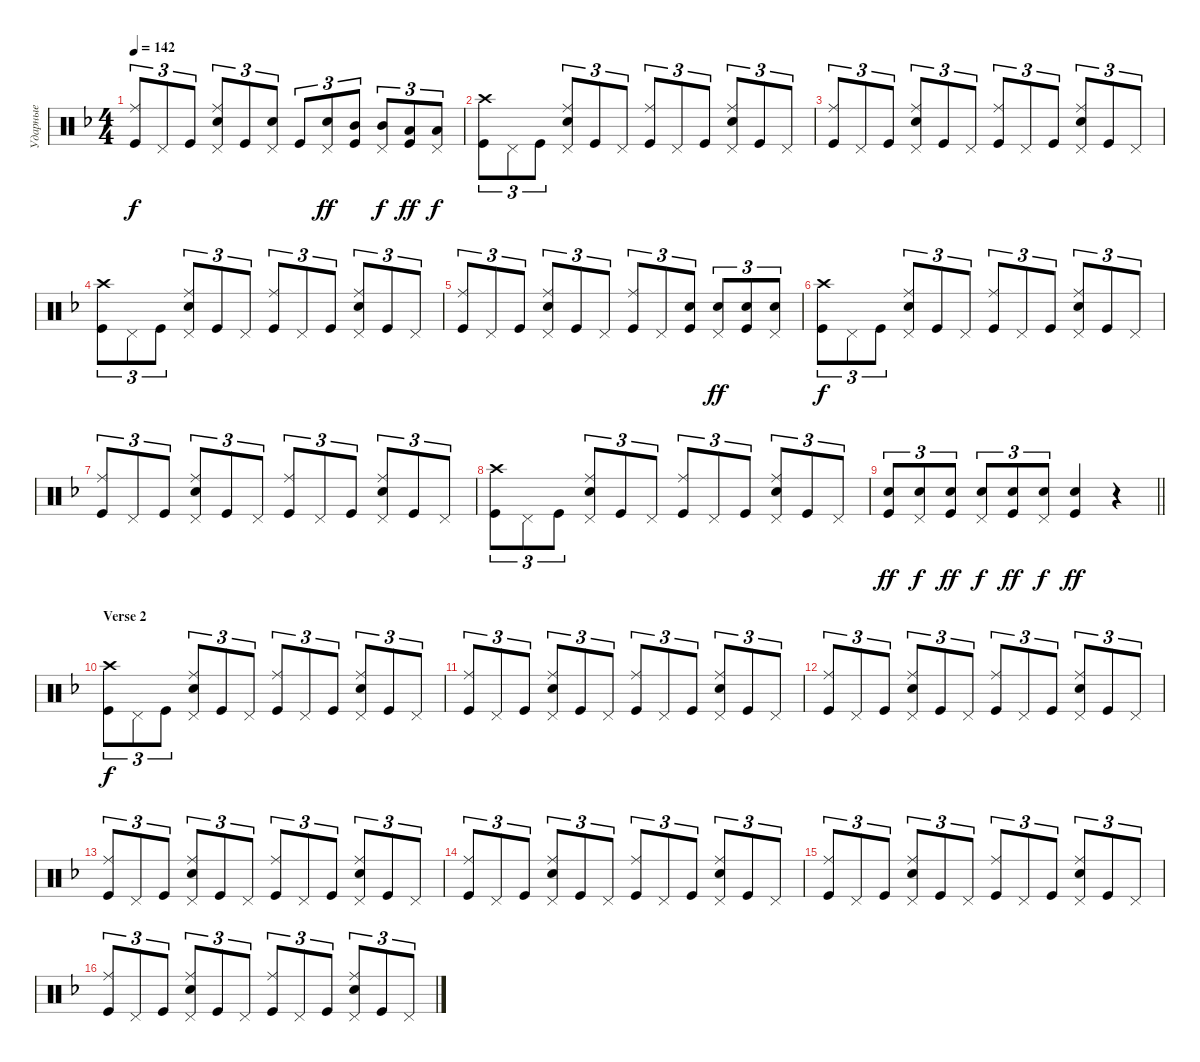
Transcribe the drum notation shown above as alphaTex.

\track ("Ударные" "Ударные") {instrument percussion}
\staff {score}
\articulation defaults
\ts (4 4)
\tempo 142
\clef neutral
\ks dminor
("Kick (hit)" "Ride (middle)").8{tu (3 2) dy f} "Pedal Hi-Hat (hit)".8{tu (3 2)} "Kick (hit)".8{tu (3 2)} ("Snare (hit) 2" "Ride (middle)" "Pedal Hi-Hat (hit)").8{tu (3 2)} "Kick (hit)".8{tu (3 2)} ("Pedal Hi-Hat (hit)" "Snare (hit) 2").8{tu (3 2)} "Kick (hit)".8{tu (3 2)} ("Snare (hit) 2" "Pedal Hi-Hat (hit)").8{tu (3 2) dy ff} ("Mid Tom (hit)" "Kick (hit)").8{tu (3 2)} ("Mid Tom (hit)" "Pedal Hi-Hat (hit)").8{tu (3 2) dy f} ("Low Tom (hit)" "Kick (hit)").8{tu (3 2) dy ff} ("Pedal Hi-Hat (hit)" "Low Tom (hit)").8{tu (3 2) dy f} |
("Kick (hit)" "Crash high (hit)").8{tu (3 2)} "Pedal Hi-Hat (hit)".8{tu (3 2)} "Kick (hit)".8{tu (3 2)} ("Snare (hit) 2" "Ride (middle)" "Pedal Hi-Hat (hit)").8{tu (3 2)} "Kick (hit)".8{tu (3 2)} "Pedal Hi-Hat (hit)".8{tu (3 2)} ("Kick (hit)" "Ride (middle)").8{tu (3 2)} "Pedal Hi-Hat (hit)".8{tu (3 2)} "Kick (hit)".8{tu (3 2)} ("Snare (hit) 2" "Ride (middle)" "Pedal Hi-Hat (hit)").8{tu (3 2)} "Kick (hit)".8{tu (3 2)} "Pedal Hi-Hat (hit)".8{tu (3 2)} |
("Kick (hit)" "Ride (middle)").8{tu (3 2)} "Pedal Hi-Hat (hit)".8{tu (3 2)} "Kick (hit)".8{tu (3 2)} ("Snare (hit) 2" "Ride (middle)" "Pedal Hi-Hat (hit)").8{tu (3 2)} "Kick (hit)".8{tu (3 2)} "Pedal Hi-Hat (hit)".8{tu (3 2)} ("Kick (hit)" "Ride (middle)").8{tu (3 2)} "Pedal Hi-Hat (hit)".8{tu (3 2)} "Kick (hit)".8{tu (3 2)} ("Snare (hit) 2" "Ride (middle)" "Pedal Hi-Hat (hit)").8{tu (3 2)} "Kick (hit)".8{tu (3 2)} "Pedal Hi-Hat (hit)".8{tu (3 2)} |
("Kick (hit)" "Crash high (hit)").8{tu (3 2)} "Pedal Hi-Hat (hit)".8{tu (3 2)} "Kick (hit)".8{tu (3 2)} ("Snare (hit) 2" "Ride (middle)" "Pedal Hi-Hat (hit)").8{tu (3 2)} "Kick (hit)".8{tu (3 2)} "Pedal Hi-Hat (hit)".8{tu (3 2)} ("Kick (hit)" "Ride (middle)").8{tu (3 2)} "Pedal Hi-Hat (hit)".8{tu (3 2)} "Kick (hit)".8{tu (3 2)} ("Snare (hit) 2" "Ride (middle)" "Pedal Hi-Hat (hit)").8{tu (3 2)} "Kick (hit)".8{tu (3 2)} "Pedal Hi-Hat (hit)".8{tu (3 2)} |
("Kick (hit)" "Ride (middle)").8{tu (3 2)} "Pedal Hi-Hat (hit)".8{tu (3 2)} "Kick (hit)".8{tu (3 2)} ("Snare (hit) 2" "Ride (middle)" "Pedal Hi-Hat (hit)").8{tu (3 2)} "Kick (hit)".8{tu (3 2)} "Pedal Hi-Hat (hit)".8{tu (3 2)} ("Kick (hit)" "Ride (middle)").8{tu (3 2)} "Pedal Hi-Hat (hit)".8{tu (3 2)} ("Snare (hit) 2" "Kick (hit)").8{tu (3 2)} ("Snare (hit) 2" "Pedal Hi-Hat (hit)").8{tu (3 2) dy ff} ("Snare (hit) 2" "Kick (hit)").8{tu (3 2)} ("Snare (hit) 2" "Pedal Hi-Hat (hit)").8{tu (3 2)} |
("Kick (hit)" "Crash high (hit)").8{tu (3 2) dy f} "Pedal Hi-Hat (hit)".8{tu (3 2)} "Kick (hit)".8{tu (3 2)} ("Snare (hit) 2" "Ride (middle)" "Pedal Hi-Hat (hit)").8{tu (3 2)} "Kick (hit)".8{tu (3 2)} "Pedal Hi-Hat (hit)".8{tu (3 2)} ("Kick (hit)" "Ride (middle)").8{tu (3 2)} "Pedal Hi-Hat (hit)".8{tu (3 2)} "Kick (hit)".8{tu (3 2)} ("Snare (hit) 2" "Ride (middle)" "Pedal Hi-Hat (hit)").8{tu (3 2)} "Kick (hit)".8{tu (3 2)} "Pedal Hi-Hat (hit)".8{tu (3 2)} |
("Kick (hit)" "Ride (middle)").8{tu (3 2)} "Pedal Hi-Hat (hit)".8{tu (3 2)} "Kick (hit)".8{tu (3 2)} ("Snare (hit) 2" "Ride (middle)" "Pedal Hi-Hat (hit)").8{tu (3 2)} "Kick (hit)".8{tu (3 2)} "Pedal Hi-Hat (hit)".8{tu (3 2)} ("Kick (hit)" "Ride (middle)").8{tu (3 2)} "Pedal Hi-Hat (hit)".8{tu (3 2)} "Kick (hit)".8{tu (3 2)} ("Snare (hit) 2" "Ride (middle)" "Pedal Hi-Hat (hit)").8{tu (3 2)} "Kick (hit)".8{tu (3 2)} "Pedal Hi-Hat (hit)".8{tu (3 2)} |
("Kick (hit)" "Crash high (hit)").8{tu (3 2)} "Pedal Hi-Hat (hit)".8{tu (3 2)} "Kick (hit)".8{tu (3 2)} ("Snare (hit) 2" "Ride (middle)" "Pedal Hi-Hat (hit)").8{tu (3 2)} "Kick (hit)".8{tu (3 2)} "Pedal Hi-Hat (hit)".8{tu (3 2)} ("Kick (hit)" "Ride (middle)").8{tu (3 2)} "Pedal Hi-Hat (hit)".8{tu (3 2)} "Kick (hit)".8{tu (3 2)} ("Snare (hit) 2" "Ride (middle)" "Pedal Hi-Hat (hit)").8{tu (3 2)} "Kick (hit)".8{tu (3 2)} "Pedal Hi-Hat (hit)".8{tu (3 2)} |
\barLineRight lightlight
("Kick (hit)" "Snare (hit) 2").8{tu (3 2) dy ff} ("Snare (hit) 2" "Pedal Hi-Hat (hit)").8{tu (3 2) dy f} ("Snare (hit) 2" "Kick (hit)").8{tu (3 2) dy ff} ("Snare (hit) 2" "Pedal Hi-Hat (hit)").8{tu (3 2) dy f} ("Snare (hit) 2" "Kick (hit)").8{tu (3 2) dy ff} ("Snare (hit) 2" "Pedal Hi-Hat (hit)").8{tu (3 2) dy f} ("Snare (hit) 2" "Kick (hit)").4{dy ff} r.4 |
\section ("" "Verse 2")
("Kick (hit)" "Crash high (hit)").8{tu (3 2) dy f} "Pedal Hi-Hat (hit)".8{tu (3 2)} "Kick (hit)".8{tu (3 2)} ("Snare (hit) 2" "Ride (middle)" "Pedal Hi-Hat (hit)").8{tu (3 2)} "Kick (hit)".8{tu (3 2)} "Pedal Hi-Hat (hit)".8{tu (3 2)} ("Kick (hit)" "Ride (middle)").8{tu (3 2)} "Pedal Hi-Hat (hit)".8{tu (3 2)} "Kick (hit)".8{tu (3 2)} ("Snare (hit) 2" "Ride (middle)" "Pedal Hi-Hat (hit)").8{tu (3 2)} "Kick (hit)".8{tu (3 2)} "Pedal Hi-Hat (hit)".8{tu (3 2)} |
("Kick (hit)" "Ride (middle)").8{tu (3 2)} "Pedal Hi-Hat (hit)".8{tu (3 2)} "Kick (hit)".8{tu (3 2)} ("Snare (hit) 2" "Ride (middle)" "Pedal Hi-Hat (hit)").8{tu (3 2)} "Kick (hit)".8{tu (3 2)} "Pedal Hi-Hat (hit)".8{tu (3 2)} ("Kick (hit)" "Ride (middle)").8{tu (3 2)} "Pedal Hi-Hat (hit)".8{tu (3 2)} "Kick (hit)".8{tu (3 2)} ("Snare (hit) 2" "Ride (middle)" "Pedal Hi-Hat (hit)").8{tu (3 2)} "Kick (hit)".8{tu (3 2)} "Pedal Hi-Hat (hit)".8{tu (3 2)} |
("Kick (hit)" "Ride (middle)").8{tu (3 2)} "Pedal Hi-Hat (hit)".8{tu (3 2)} "Kick (hit)".8{tu (3 2)} ("Snare (hit) 2" "Ride (middle)" "Pedal Hi-Hat (hit)").8{tu (3 2)} "Kick (hit)".8{tu (3 2)} "Pedal Hi-Hat (hit)".8{tu (3 2)} ("Kick (hit)" "Ride (middle)").8{tu (3 2)} "Pedal Hi-Hat (hit)".8{tu (3 2)} "Kick (hit)".8{tu (3 2)} ("Snare (hit) 2" "Ride (middle)" "Pedal Hi-Hat (hit)").8{tu (3 2)} "Kick (hit)".8{tu (3 2)} "Pedal Hi-Hat (hit)".8{tu (3 2)} |
("Kick (hit)" "Ride (middle)").8{tu (3 2)} "Pedal Hi-Hat (hit)".8{tu (3 2)} "Kick (hit)".8{tu (3 2)} ("Snare (hit) 2" "Ride (middle)" "Pedal Hi-Hat (hit)").8{tu (3 2)} "Kick (hit)".8{tu (3 2)} "Pedal Hi-Hat (hit)".8{tu (3 2)} ("Kick (hit)" "Ride (middle)").8{tu (3 2)} "Pedal Hi-Hat (hit)".8{tu (3 2)} "Kick (hit)".8{tu (3 2)} ("Snare (hit) 2" "Ride (middle)" "Pedal Hi-Hat (hit)").8{tu (3 2)} "Kick (hit)".8{tu (3 2)} "Pedal Hi-Hat (hit)".8{tu (3 2)} |
("Kick (hit)" "Ride (middle)").8{tu (3 2)} "Pedal Hi-Hat (hit)".8{tu (3 2)} "Kick (hit)".8{tu (3 2)} ("Snare (hit) 2" "Ride (middle)" "Pedal Hi-Hat (hit)").8{tu (3 2)} "Kick (hit)".8{tu (3 2)} "Pedal Hi-Hat (hit)".8{tu (3 2)} ("Kick (hit)" "Ride (middle)").8{tu (3 2)} "Pedal Hi-Hat (hit)".8{tu (3 2)} "Kick (hit)".8{tu (3 2)} ("Snare (hit) 2" "Ride (middle)" "Pedal Hi-Hat (hit)").8{tu (3 2)} "Kick (hit)".8{tu (3 2)} "Pedal Hi-Hat (hit)".8{tu (3 2)} |
("Kick (hit)" "Ride (middle)").8{tu (3 2)} "Pedal Hi-Hat (hit)".8{tu (3 2)} "Kick (hit)".8{tu (3 2)} ("Snare (hit) 2" "Ride (middle)" "Pedal Hi-Hat (hit)").8{tu (3 2)} "Kick (hit)".8{tu (3 2)} "Pedal Hi-Hat (hit)".8{tu (3 2)} ("Kick (hit)" "Ride (middle)").8{tu (3 2)} "Pedal Hi-Hat (hit)".8{tu (3 2)} "Kick (hit)".8{tu (3 2)} ("Snare (hit) 2" "Ride (middle)" "Pedal Hi-Hat (hit)").8{tu (3 2)} "Kick (hit)".8{tu (3 2)} "Pedal Hi-Hat (hit)".8{tu (3 2)} |
("Kick (hit)" "Ride (middle)").8{tu (3 2)} "Pedal Hi-Hat (hit)".8{tu (3 2)} "Kick (hit)".8{tu (3 2)} ("Snare (hit) 2" "Ride (middle)" "Pedal Hi-Hat (hit)").8{tu (3 2)} "Kick (hit)".8{tu (3 2)} "Pedal Hi-Hat (hit)".8{tu (3 2)} ("Kick (hit)" "Ride (middle)").8{tu (3 2)} "Pedal Hi-Hat (hit)".8{tu (3 2)} "Kick (hit)".8{tu (3 2)} ("Snare (hit) 2" "Ride (middle)" "Pedal Hi-Hat (hit)").8{tu (3 2)} "Kick (hit)".8{tu (3 2)} "Pedal Hi-Hat (hit)".8{tu (3 2)}
